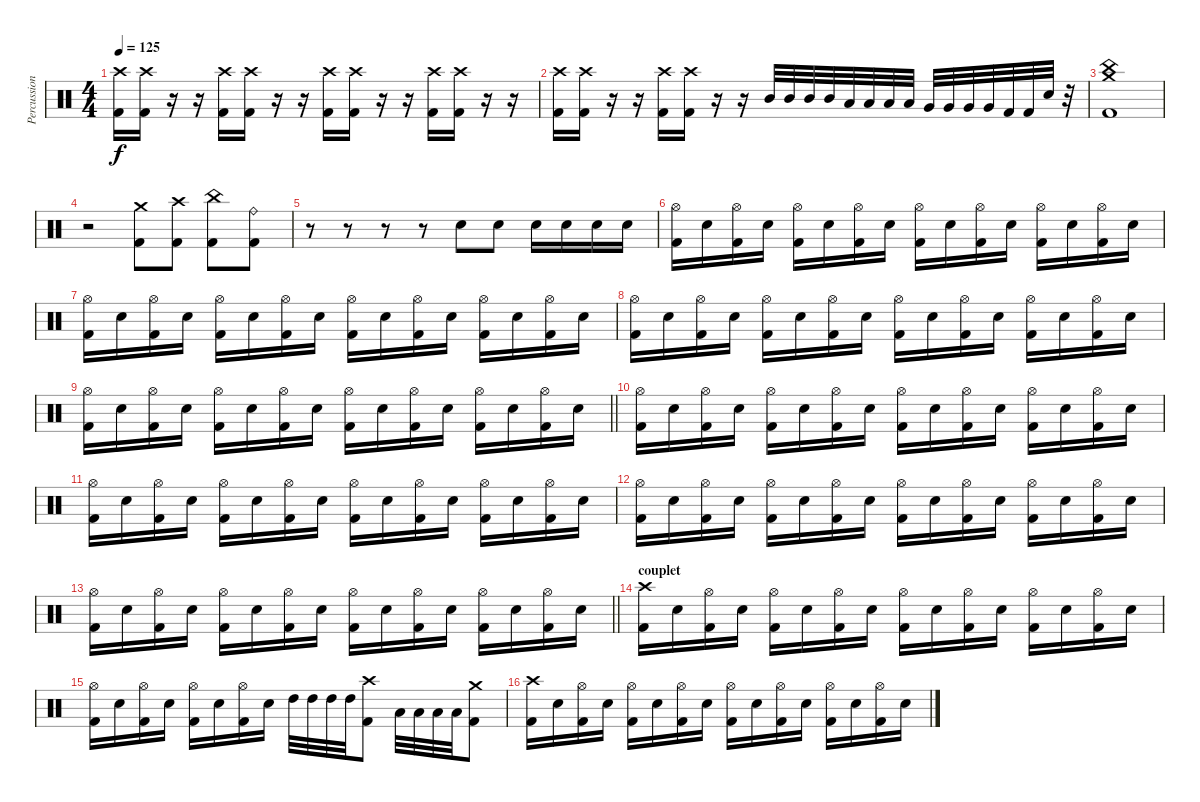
\track ("Percussions" "Percussion") {instrument percussion}
\staff {score}
\articulation defaults
\ts (4 4)
\tempo 125
\clef neutral
\ks c
("Kick (hit) 2" "Crash high (hit)").16{dy f} ("Kick (hit) 2" "Crash high (hit)").16 r.16 r.16 ("Kick (hit) 2" "Crash high (hit)").16 ("Kick (hit) 2" "Crash high (hit)").16 r.16 r.16 ("Kick (hit) 2" "Crash high (hit)").16 ("Kick (hit) 2" "Crash high (hit)").16 r.16 r.16 ("Kick (hit) 2" "Crash high (hit)").16 ("Kick (hit) 2" "Crash high (hit)").16 r.16 r.16 |
("Kick (hit) 2" "Crash high (hit)").16 ("Kick (hit) 2" "Crash high (hit)").16 r.16 r.16 ("Kick (hit) 2" "Crash high (hit)").16 ("Kick (hit) 2" "Crash high (hit)").16 r.16 r.16 "Mid Tom (hit)".32 "Mid Tom (hit)".32 "Mid Tom (hit)".32 "Mid Tom (hit)".32 "Low Tom (hit)".32 "Low Tom (hit)".32 "Low Tom (hit)".32 "Low Tom (hit)".32 "Very Low Tom (hit)".32 "Very Low Tom (hit)".32 "Very Low Tom (hit)".32 "Very Low Tom (hit)".32 "Kick (hit) 2".32 "Kick (hit) 2".32 "Electric Snare (hit)".32 r.32 |
("Kick (hit) 2" "Crash medium (hit)" "China (hit)").1 |
r.2 ("Kick (hit) 2" "Crash medium (hit)").8 ("Kick (hit) 2" "Crash high (hit)").8 ("Kick (hit) 2" "China (hit)").8 ("Kick (hit) 2" "Ride (bell)").8 |
r.8 r.8 r.8 r.8 "Electric Snare (hit)".8 "Electric Snare (hit)".8 "Electric Snare (hit)".16 "Electric Snare (hit)".16 "Electric Snare (hit)".16 "Electric Snare (hit)".16 |
("Kick (hit) 2" "Hi-Hat (open)").16 "Electric Snare (hit)".16 ("Kick (hit) 2" "Hi-Hat (open)").16 "Electric Snare (hit)".16 ("Kick (hit) 2" "Hi-Hat (open)").16 "Electric Snare (hit)".16 ("Kick (hit) 2" "Hi-Hat (open)").16 "Electric Snare (hit)".16 ("Kick (hit) 2" "Hi-Hat (open)").16 "Electric Snare (hit)".16 ("Kick (hit) 2" "Hi-Hat (open)").16 "Electric Snare (hit)".16 ("Kick (hit) 2" "Hi-Hat (open)").16 "Electric Snare (hit)".16 ("Kick (hit) 2" "Hi-Hat (open)").16 "Electric Snare (hit)".16 |
("Kick (hit) 2" "Hi-Hat (open)").16 "Electric Snare (hit)".16 ("Kick (hit) 2" "Hi-Hat (open)").16 "Electric Snare (hit)".16 ("Kick (hit) 2" "Hi-Hat (open)").16 "Electric Snare (hit)".16 ("Kick (hit) 2" "Hi-Hat (open)").16 "Electric Snare (hit)".16 ("Kick (hit) 2" "Hi-Hat (open)").16 "Electric Snare (hit)".16 ("Kick (hit) 2" "Hi-Hat (open)").16 "Electric Snare (hit)".16 ("Kick (hit) 2" "Hi-Hat (open)").16 "Electric Snare (hit)".16 ("Kick (hit) 2" "Hi-Hat (open)").16 "Electric Snare (hit)".16 |
("Kick (hit) 2" "Hi-Hat (open)").16 "Electric Snare (hit)".16 ("Kick (hit) 2" "Hi-Hat (open)").16 "Electric Snare (hit)".16 ("Kick (hit) 2" "Hi-Hat (open)").16 "Electric Snare (hit)".16 ("Kick (hit) 2" "Hi-Hat (open)").16 "Electric Snare (hit)".16 ("Kick (hit) 2" "Hi-Hat (open)").16 "Electric Snare (hit)".16 ("Kick (hit) 2" "Hi-Hat (open)").16 "Electric Snare (hit)".16 ("Kick (hit) 2" "Hi-Hat (open)").16 "Electric Snare (hit)".16 ("Kick (hit) 2" "Hi-Hat (open)").16 "Electric Snare (hit)".16 |
\barLineRight lightlight
("Kick (hit) 2" "Hi-Hat (open)").16 "Electric Snare (hit)".16 ("Kick (hit) 2" "Hi-Hat (open)").16 "Electric Snare (hit)".16 ("Kick (hit) 2" "Hi-Hat (open)").16 "Electric Snare (hit)".16 ("Kick (hit) 2" "Hi-Hat (open)").16 "Electric Snare (hit)".16 ("Kick (hit) 2" "Hi-Hat (open)").16 "Electric Snare (hit)".16 ("Kick (hit) 2" "Hi-Hat (open)").16 "Electric Snare (hit)".16 ("Kick (hit) 2" "Hi-Hat (open)").16 "Electric Snare (hit)".16 ("Kick (hit) 2" "Hi-Hat (open)").16 "Electric Snare (hit)".16 |
("Kick (hit) 2" "Hi-Hat (open)").16 "Electric Snare (hit)".16 ("Kick (hit) 2" "Hi-Hat (open)").16 "Electric Snare (hit)".16 ("Kick (hit) 2" "Hi-Hat (open)").16 "Electric Snare (hit)".16 ("Kick (hit) 2" "Hi-Hat (open)").16 "Electric Snare (hit)".16 ("Kick (hit) 2" "Hi-Hat (open)").16 "Electric Snare (hit)".16 ("Kick (hit) 2" "Hi-Hat (open)").16 "Electric Snare (hit)".16 ("Kick (hit) 2" "Hi-Hat (open)").16 "Electric Snare (hit)".16 ("Kick (hit) 2" "Hi-Hat (open)").16 "Electric Snare (hit)".16 |
("Kick (hit) 2" "Hi-Hat (open)").16 "Electric Snare (hit)".16 ("Kick (hit) 2" "Hi-Hat (open)").16 "Electric Snare (hit)".16 ("Kick (hit) 2" "Hi-Hat (open)").16 "Electric Snare (hit)".16 ("Kick (hit) 2" "Hi-Hat (open)").16 "Electric Snare (hit)".16 ("Kick (hit) 2" "Hi-Hat (open)").16 "Electric Snare (hit)".16 ("Kick (hit) 2" "Hi-Hat (open)").16 "Electric Snare (hit)".16 ("Kick (hit) 2" "Hi-Hat (open)").16 "Electric Snare (hit)".16 ("Kick (hit) 2" "Hi-Hat (open)").16 "Electric Snare (hit)".16 |
("Kick (hit) 2" "Hi-Hat (open)").16 "Electric Snare (hit)".16 ("Kick (hit) 2" "Hi-Hat (open)").16 "Electric Snare (hit)".16 ("Kick (hit) 2" "Hi-Hat (open)").16 "Electric Snare (hit)".16 ("Kick (hit) 2" "Hi-Hat (open)").16 "Electric Snare (hit)".16 ("Kick (hit) 2" "Hi-Hat (open)").16 "Electric Snare (hit)".16 ("Kick (hit) 2" "Hi-Hat (open)").16 "Electric Snare (hit)".16 ("Kick (hit) 2" "Hi-Hat (open)").16 "Electric Snare (hit)".16 ("Kick (hit) 2" "Hi-Hat (open)").16 "Electric Snare (hit)".16 |
\barLineRight lightlight
("Kick (hit) 2" "Hi-Hat (open)").16 "Electric Snare (hit)".16 ("Kick (hit) 2" "Hi-Hat (open)").16 "Electric Snare (hit)".16 ("Kick (hit) 2" "Hi-Hat (open)").16 "Electric Snare (hit)".16 ("Kick (hit) 2" "Hi-Hat (open)").16 "Electric Snare (hit)".16 ("Kick (hit) 2" "Hi-Hat (open)").16 "Electric Snare (hit)".16 ("Kick (hit) 2" "Hi-Hat (open)").16 "Electric Snare (hit)".16 ("Kick (hit) 2" "Hi-Hat (open)").16 "Electric Snare (hit)".16 ("Kick (hit) 2" "Hi-Hat (open)").16 "Electric Snare (hit)".16 |
\section ("" "couplet")
("Kick (hit) 2" "Crash high (hit)").16 "Electric Snare (hit)".16 ("Kick (hit) 2" "Hi-Hat (open)").16 "Electric Snare (hit)".16 ("Kick (hit) 2" "Hi-Hat (open)").16 "Electric Snare (hit)".16 ("Kick (hit) 2" "Hi-Hat (open)").16 "Electric Snare (hit)".16 ("Kick (hit) 2" "Hi-Hat (open)").16 "Electric Snare (hit)".16 ("Kick (hit) 2" "Hi-Hat (open)").16 "Electric Snare (hit)".16 ("Kick (hit) 2" "Hi-Hat (open)").16 "Electric Snare (hit)".16 ("Kick (hit) 2" "Hi-Hat (open)").16 "Electric Snare (hit)".16 |
("Kick (hit) 2" "Hi-Hat (open)").16 "Electric Snare (hit)".16 ("Kick (hit) 2" "Hi-Hat (open)").16 "Electric Snare (hit)".16 ("Kick (hit) 2" "Hi-Hat (open)").16 "Electric Snare (hit)".16 ("Kick (hit) 2" "Hi-Hat (open)").16 "Electric Snare (hit)".16 "High Tom (hit)".32 "High Tom (hit)".32 "High Tom (hit)".32 "High Tom (hit)".32 ("Kick (hit) 2" "Crash high (hit)").8 "Low Tom (hit)".32 "Low Tom (hit)".32 "Low Tom (hit)".32 "Low Tom (hit)".32 ("Kick (hit) 2" "Crash medium (hit)").8 |
("Kick (hit) 2" "Crash high (hit)").16 "Electric Snare (hit)".16 ("Kick (hit) 2" "Hi-Hat (open)").16 "Electric Snare (hit)".16 ("Kick (hit) 2" "Hi-Hat (open)").16 "Electric Snare (hit)".16 ("Kick (hit) 2" "Hi-Hat (open)").16 "Electric Snare (hit)".16 ("Kick (hit) 2" "Hi-Hat (open)").16 "Electric Snare (hit)".16 ("Kick (hit) 2" "Hi-Hat (open)").16 "Electric Snare (hit)".16 ("Kick (hit) 2" "Hi-Hat (open)").16 "Electric Snare (hit)".16 ("Kick (hit) 2" "Hi-Hat (open)").16 "Electric Snare (hit)".16
